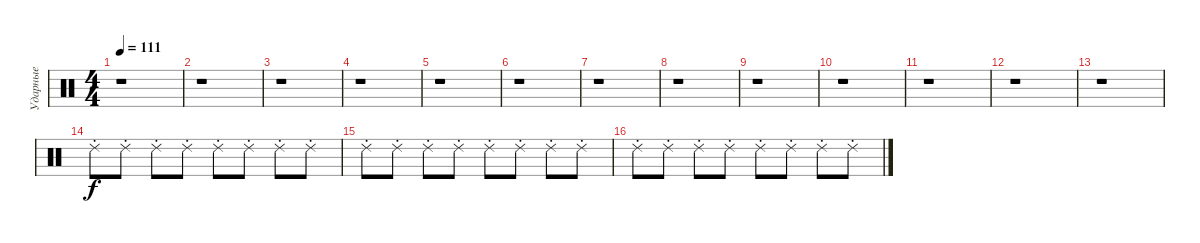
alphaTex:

\track ("Ударные" "Ударные") {instrument percussion}
\staff {score}
\articulation defaults
\ts (4 4)
\tempo 111
\clef neutral
\ks c
r.1{dy f} |
r.1 |
r.1 |
r.1 |
r.1 |
r.1 |
r.1 |
r.1 |
r.1 |
r.1 |
r.1 |
r.1 |
r.1 |
"Ride (choke) 2".8 "Ride (choke) 2".8 "Ride (choke) 2".8 "Ride (choke) 2".8 "Ride (choke) 2".8 "Ride (choke) 2".8 "Ride (choke) 2".8 "Ride (choke) 2".8 |
"Ride (choke) 2".8 "Ride (choke) 2".8 "Ride (choke) 2".8 "Ride (choke) 2".8 "Ride (choke) 2".8 "Ride (choke) 2".8 "Ride (choke) 2".8 "Ride (choke) 2".8 |
"Ride (choke) 2".8 "Ride (choke) 2".8 "Ride (choke) 2".8 "Ride (choke) 2".8 "Ride (choke) 2".8 "Ride (choke) 2".8 "Ride (choke) 2".8 "Ride (choke) 2".8
